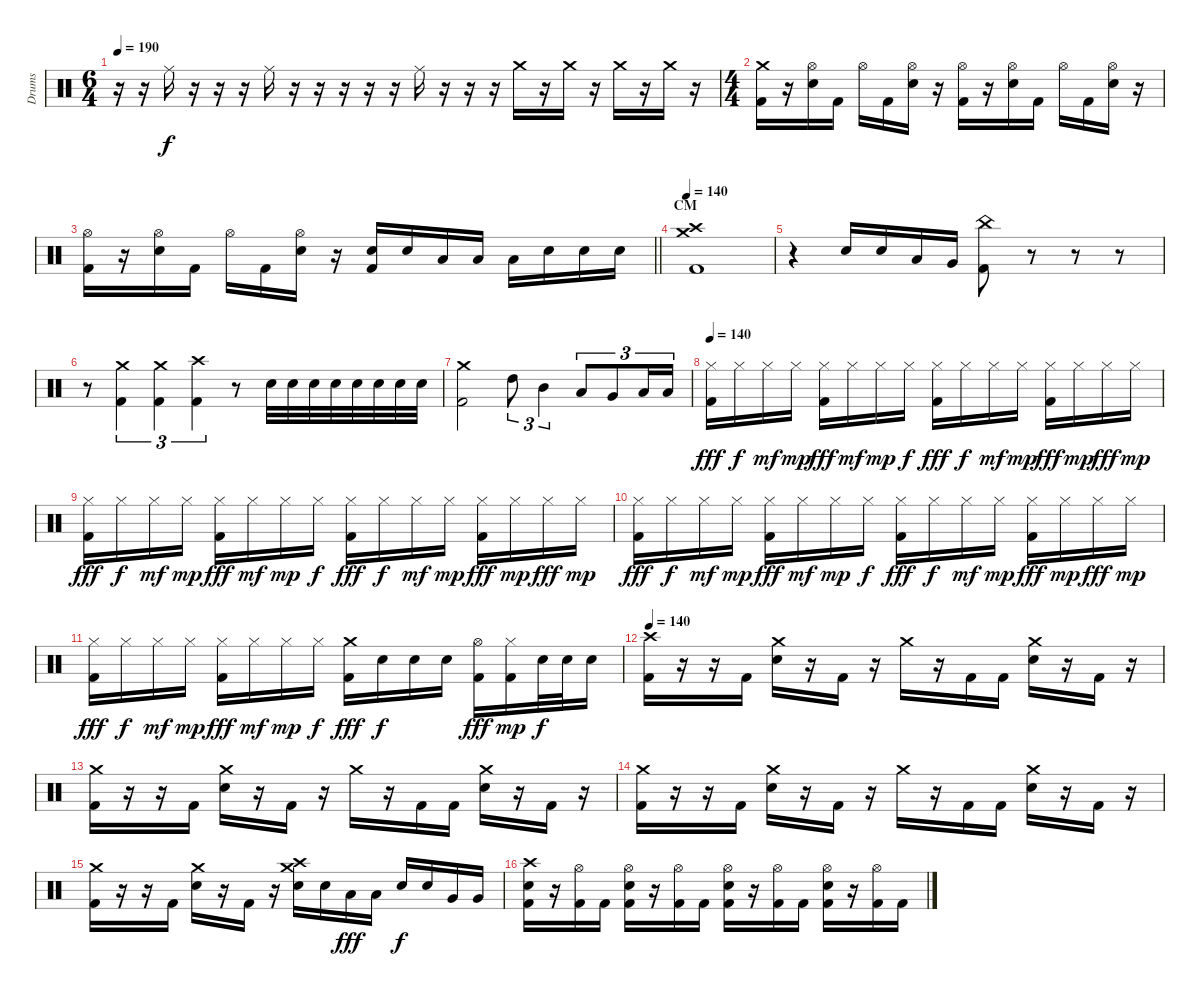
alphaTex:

\track ("Drums" "Drums") {instrument percussion}
\staff {score}
\articulation defaults
\ts (6 4)
\tempo 190
\clef neutral
\ks c
r.16{dy f} r.16 "Ride (middle)".16 r.16 r.16 r.16 "Ride (middle)".16 r.16 r.16 r.16 r.16 r.16 "Ride (middle)".16 r.16 r.16 r.16 "Crash medium (hit)".16 r.16 "Crash medium (hit)".16 r.16 "Crash medium (hit)".16 r.16 "Crash medium (hit)".16 r.16 |
\ts (4 4)
("Crash medium (hit)" "Kick (hit) 2").16 r.16 ("Hi-Hat (open)" "Electric Snare (hit)").16 "Kick (hit) 2".16 "Hi-Hat (open)".16 "Kick (hit) 2".16 ("Hi-Hat (open)" "Electric Snare (hit)").16 r.16 ("Hi-Hat (open)" "Kick (hit) 2").16 r.16 ("Hi-Hat (open)" "Electric Snare (hit)").16 "Kick (hit) 2".16 "Hi-Hat (open)".16 "Kick (hit) 2".16 ("Hi-Hat (open)" "Electric Snare (hit)").16 r.16 |
\barLineRight lightlight
("Hi-Hat (open)" "Kick (hit) 2").16 r.16 ("Hi-Hat (open)" "Electric Snare (hit)").16 "Kick (hit) 2".16 "Hi-Hat (open)".16 "Kick (hit) 2".16 ("Hi-Hat (open)" "Electric Snare (hit)").16 r.16 ("Electric Snare (hit)" "Kick (hit) 2").16 "Electric Snare (hit)".16 "Low Floor Tom (hit)".16 "Low Floor Tom (hit)".16 "Low Floor Tom (hit)".16 "Electric Snare (hit)".16 "Electric Snare (hit)".16 "Electric Snare (hit)".16 |
\section ("" "CM")
\tempo 140
("Crash medium (hit)" "Crash high (hit)" "Kick (hit) 2").1 |
r.4 "Electric Snare (hit)".16 "Electric Snare (hit)".16 "Low Tom (hit)".16 "Very Low Tom (hit)".16 ("China (hit)" "Kick (hit) 2").8 r.8 r.8 r.8 |
r.8 ("Crash medium (hit)" "Kick (hit) 2").4{tu (3 2)} ("Crash medium (hit)" "Kick (hit) 2").4{tu (3 2)} ("Crash high (hit)" "Kick (hit) 2").4{tu (3 2)} r.8 "Electric Snare (hit)".32 "Electric Snare (hit)".32 "Electric Snare (hit)".32 "Electric Snare (hit)".32 "Electric Snare (hit)".32 "Electric Snare (hit)".32 "Electric Snare (hit)".32 "Electric Snare (hit)".32 |
("Crash medium (hit)" "Kick (hit) 2").2 "High Tom (hit)".8{tu (3 2)} "Mid Tom (hit)".4{tu (3 2)} "Low Tom (hit)".8{tu (3 2)} "Very Low Tom (hit)".8{tu (3 2)} "Low Floor Tom (hit)".16{tu (3 2)} "Low Floor Tom (hit)".16{tu (3 2)} |
\tempo 140
("Hi-Hat (closed)" "Kick (hit) 2").16{dy fff} "Hi-Hat (closed)".16{dy f} "Hi-Hat (closed)".16{dy mf} "Hi-Hat (closed)".16{dy mp} ("Hi-Hat (closed)" "Kick (hit) 2").16{dy fff} "Hi-Hat (closed)".16{dy mf} "Hi-Hat (closed)".16{dy mp} "Hi-Hat (closed)".16{dy f} ("Hi-Hat (closed)" "Kick (hit) 2").16{dy fff} "Hi-Hat (closed)".16{dy f} "Hi-Hat (closed)".16{dy mf} "Hi-Hat (closed)".16{dy mp} ("Hi-Hat (closed)" "Kick (hit) 2").16{dy fff} "Hi-Hat (closed)".16{dy mp} "Hi-Hat (closed)".16{dy fff} "Hi-Hat (closed)".16{dy mp} |
("Hi-Hat (closed)" "Kick (hit) 2").16{dy fff} "Hi-Hat (closed)".16{dy f} "Hi-Hat (closed)".16{dy mf} "Hi-Hat (closed)".16{dy mp} ("Hi-Hat (closed)" "Kick (hit) 2").16{dy fff} "Hi-Hat (closed)".16{dy mf} "Hi-Hat (closed)".16{dy mp} "Hi-Hat (closed)".16{dy f} ("Hi-Hat (closed)" "Kick (hit) 2").16{dy fff} "Hi-Hat (closed)".16{dy f} "Hi-Hat (closed)".16{dy mf} "Hi-Hat (closed)".16{dy mp} ("Hi-Hat (closed)" "Kick (hit) 2").16{dy fff} "Hi-Hat (closed)".16{dy mp} "Hi-Hat (closed)".16{dy fff} "Hi-Hat (closed)".16{dy mp} |
("Hi-Hat (closed)" "Kick (hit) 2").16{dy fff} "Hi-Hat (closed)".16{dy f} "Hi-Hat (closed)".16{dy mf} "Hi-Hat (closed)".16{dy mp} ("Hi-Hat (closed)" "Kick (hit) 2").16{dy fff} "Hi-Hat (closed)".16{dy mf} "Hi-Hat (closed)".16{dy mp} "Hi-Hat (closed)".16{dy f} ("Hi-Hat (closed)" "Kick (hit) 2").16{dy fff} "Hi-Hat (closed)".16{dy f} "Hi-Hat (closed)".16{dy mf} "Hi-Hat (closed)".16{dy mp} ("Hi-Hat (closed)" "Kick (hit) 2").16{dy fff} "Hi-Hat (closed)".16{dy mp} "Hi-Hat (closed)".16{dy fff} "Hi-Hat (closed)".16{dy mp} |
("Hi-Hat (closed)" "Kick (hit) 2").16{dy fff} "Hi-Hat (closed)".16{dy f} "Hi-Hat (closed)".16{dy mf} "Hi-Hat (closed)".16{dy mp} ("Hi-Hat (closed)" "Kick (hit) 2").16{dy fff} "Hi-Hat (closed)".16{dy mf} "Hi-Hat (closed)".16{dy mp} "Hi-Hat (closed)".16{dy f} ("Crash medium (hit)" "Kick (hit) 2").16{dy fff} "Electric Snare (hit)".16{dy f} "Electric Snare (hit)".16 "Electric Snare (hit)".16 ("Hi-Hat (open)" "Kick (hit) 2").16{dy fff} ("Hi-Hat (closed)" "Kick (hit) 2").16{dy mp} "Electric Snare (hit)".32{dy f} "Electric Snare (hit)".32 "Electric Snare (hit)".16 |
\tempo 140
("Crash high (hit)" "Kick (hit) 2").16 r.16 r.16 "Kick (hit) 2".16 ("Crash medium (hit)" "Electric Snare (hit)").16 r.16 "Kick (hit) 2".16 r.16 "Crash medium (hit)".16 r.16 "Kick (hit) 2".16 "Kick (hit) 2".16 ("Crash medium (hit)" "Electric Snare (hit)").16 r.16 "Kick (hit) 2".16 r.16 |
("Crash medium (hit)" "Kick (hit) 2").16 r.16 r.16 "Kick (hit) 2".16 ("Crash medium (hit)" "Electric Snare (hit)").16 r.16 "Kick (hit) 2".16 r.16 "Crash medium (hit)".16 r.16 "Kick (hit) 2".16 "Kick (hit) 2".16 ("Crash medium (hit)" "Electric Snare (hit)").16 r.16 "Kick (hit) 2".16 r.16 |
("Crash medium (hit)" "Kick (hit) 2").16 r.16 r.16 "Kick (hit) 2".16 ("Crash medium (hit)" "Electric Snare (hit)").16 r.16 "Kick (hit) 2".16 r.16 "Crash medium (hit)".16 r.16 "Kick (hit) 2".16 "Kick (hit) 2".16 ("Crash medium (hit)" "Electric Snare (hit)").16 r.16 "Kick (hit) 2".16 r.16 |
("Crash medium (hit)" "Kick (hit) 2").16 r.16 r.16 "Kick (hit) 2".16 ("Crash medium (hit)" "Electric Snare (hit)").16 r.16 "Kick (hit) 2".16 r.16 ("Crash high (hit)" "Crash medium (hit)" "Electric Snare (hit)").16 "Electric Snare (hit)".16 "Low Floor Tom (hit)".16{dy fff} "Low Floor Tom (hit)".16 "Electric Snare (hit)".16{dy f} "Electric Snare (hit)".16 "Very Low Tom (hit)".16 "Very Low Tom (hit)".16 |
("Crash high (hit)" "Electric Snare (hit)" "Kick (hit) 2").16 r.16 ("Hi-Hat (open)" "Kick (hit) 2").16 "Kick (hit) 2".16 ("Hi-Hat (open)" "Electric Snare (hit)" "Kick (hit) 2").16 r.16 ("Hi-Hat (open)" "Kick (hit) 2").16 "Kick (hit) 2".16 ("Hi-Hat (open)" "Electric Snare (hit)" "Kick (hit) 2").16 r.16 ("Hi-Hat (open)" "Kick (hit) 2").16 "Kick (hit) 2".16 ("Hi-Hat (open)" "Electric Snare (hit)" "Kick (hit) 2").16 r.16 ("Hi-Hat (open)" "Kick (hit) 2").16 "Kick (hit) 2".16
